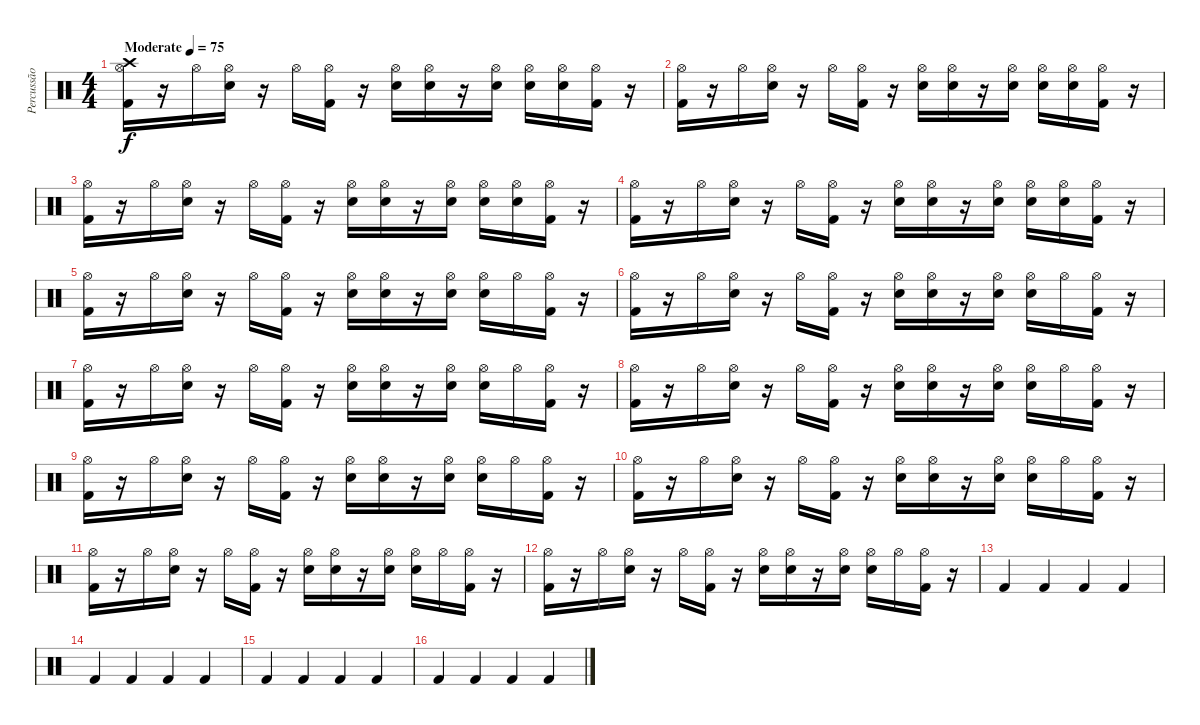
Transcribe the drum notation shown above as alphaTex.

\track ("Percussão" "Percussão") {instrument percussion}
\staff {score}
\articulation defaults
\ts (4 4)
\tempo (75 "Moderate")
\clef neutral
\ks c
("Crash high (hit)" "Kick (hit) 2" "Hi-Hat (open)").16{dy f} r.16 "Hi-Hat (open)".16 ("Snare (hit) 2" "Hi-Hat (open)").16 r.16 "Hi-Hat (open)".16 ("Kick (hit) 2" "Hi-Hat (open)").16 r.16 ("Electric Snare (hit)" "Hi-Hat (open)").16 ("Snare (hit) 2" "Hi-Hat (open)").16 r.16 ("Electric Snare (hit)" "Hi-Hat (open)").16 ("Electric Snare (hit)" "Hi-Hat (open)").16 ("Snare (hit) 2" "Hi-Hat (open)").16 ("Kick (hit) 2" "Hi-Hat (open)").16 r.16 |
("Kick (hit) 2" "Hi-Hat (open)").16 r.16 "Hi-Hat (open)".16 ("Snare (hit) 2" "Hi-Hat (open)").16 r.16 "Hi-Hat (open)".16 ("Kick (hit) 2" "Hi-Hat (open)").16 r.16 ("Electric Snare (hit)" "Hi-Hat (open)").16 ("Snare (hit) 2" "Hi-Hat (open)").16 r.16 ("Electric Snare (hit)" "Hi-Hat (open)").16 ("Electric Snare (hit)" "Hi-Hat (open)").16 ("Snare (hit) 2" "Hi-Hat (open)").16 ("Kick (hit) 2" "Hi-Hat (open)").16 r.16 |
("Kick (hit) 2" "Hi-Hat (open)").16 r.16 "Hi-Hat (open)".16 ("Snare (hit) 2" "Hi-Hat (open)").16 r.16 "Hi-Hat (open)".16 ("Kick (hit) 2" "Hi-Hat (open)").16 r.16 ("Electric Snare (hit)" "Hi-Hat (open)").16 ("Snare (hit) 2" "Hi-Hat (open)").16 r.16 ("Electric Snare (hit)" "Hi-Hat (open)").16 ("Electric Snare (hit)" "Hi-Hat (open)").16 ("Snare (hit) 2" "Hi-Hat (open)").16 ("Kick (hit) 2" "Hi-Hat (open)").16 r.16 |
("Kick (hit) 2" "Hi-Hat (open)").16 r.16 "Hi-Hat (open)".16 ("Snare (hit) 2" "Hi-Hat (open)").16 r.16 "Hi-Hat (open)".16 ("Kick (hit) 2" "Hi-Hat (open)").16 r.16 ("Electric Snare (hit)" "Hi-Hat (open)").16 ("Snare (hit) 2" "Hi-Hat (open)").16 r.16 ("Electric Snare (hit)" "Hi-Hat (open)").16 ("Electric Snare (hit)" "Hi-Hat (open)").16 ("Snare (hit) 2" "Hi-Hat (open)").16 ("Kick (hit) 2" "Hi-Hat (open)").16 r.16 |
("Kick (hit) 2" "Hi-Hat (open)").16 r.16 "Hi-Hat (open)".16 ("Snare (hit) 2" "Hi-Hat (open)").16 r.16 "Hi-Hat (open)".16 ("Kick (hit) 2" "Hi-Hat (open)").16 r.16 ("Electric Snare (hit)" "Hi-Hat (open)").16 ("Snare (hit) 2" "Hi-Hat (open)").16 r.16 ("Electric Snare (hit)" "Hi-Hat (open)").16 ("Electric Snare (hit)" "Hi-Hat (open)").16 "Hi-Hat (open)".16 ("Kick (hit) 2" "Hi-Hat (open)").16 r.16 |
("Kick (hit) 2" "Hi-Hat (open)").16 r.16 "Hi-Hat (open)".16 ("Snare (hit) 2" "Hi-Hat (open)").16 r.16 "Hi-Hat (open)".16 ("Kick (hit) 2" "Hi-Hat (open)").16 r.16 ("Electric Snare (hit)" "Hi-Hat (open)").16 ("Snare (hit) 2" "Hi-Hat (open)").16 r.16 ("Electric Snare (hit)" "Hi-Hat (open)").16 ("Electric Snare (hit)" "Hi-Hat (open)").16 "Hi-Hat (open)".16 ("Kick (hit) 2" "Hi-Hat (open)").16 r.16 |
("Kick (hit) 2" "Hi-Hat (open)").16 r.16 "Hi-Hat (open)".16 ("Snare (hit) 2" "Hi-Hat (open)").16 r.16 "Hi-Hat (open)".16 ("Kick (hit) 2" "Hi-Hat (open)").16 r.16 ("Electric Snare (hit)" "Hi-Hat (open)").16 ("Snare (hit) 2" "Hi-Hat (open)").16 r.16 ("Electric Snare (hit)" "Hi-Hat (open)").16 ("Electric Snare (hit)" "Hi-Hat (open)").16 "Hi-Hat (open)".16 ("Kick (hit) 2" "Hi-Hat (open)").16 r.16 |
("Kick (hit) 2" "Hi-Hat (open)").16 r.16 "Hi-Hat (open)".16 ("Snare (hit) 2" "Hi-Hat (open)").16 r.16 "Hi-Hat (open)".16 ("Kick (hit) 2" "Hi-Hat (open)").16 r.16 ("Electric Snare (hit)" "Hi-Hat (open)").16 ("Snare (hit) 2" "Hi-Hat (open)").16 r.16 ("Electric Snare (hit)" "Hi-Hat (open)").16 ("Electric Snare (hit)" "Hi-Hat (open)").16 "Hi-Hat (open)".16 ("Kick (hit) 2" "Hi-Hat (open)").16 r.16 |
("Kick (hit) 2" "Hi-Hat (open)").16 r.16 "Hi-Hat (open)".16 ("Snare (hit) 2" "Hi-Hat (open)").16 r.16 "Hi-Hat (open)".16 ("Kick (hit) 2" "Hi-Hat (open)").16 r.16 ("Electric Snare (hit)" "Hi-Hat (open)").16 ("Snare (hit) 2" "Hi-Hat (open)").16 r.16 ("Electric Snare (hit)" "Hi-Hat (open)").16 ("Electric Snare (hit)" "Hi-Hat (open)").16 "Hi-Hat (open)".16 ("Kick (hit) 2" "Hi-Hat (open)").16 r.16 |
("Kick (hit) 2" "Hi-Hat (open)").16 r.16 "Hi-Hat (open)".16 ("Snare (hit) 2" "Hi-Hat (open)").16 r.16 "Hi-Hat (open)".16 ("Kick (hit) 2" "Hi-Hat (open)").16 r.16 ("Electric Snare (hit)" "Hi-Hat (open)").16 ("Snare (hit) 2" "Hi-Hat (open)").16 r.16 ("Electric Snare (hit)" "Hi-Hat (open)").16 ("Electric Snare (hit)" "Hi-Hat (open)").16 "Hi-Hat (open)".16 ("Kick (hit) 2" "Hi-Hat (open)").16 r.16 |
("Kick (hit) 2" "Hi-Hat (open)").16 r.16 "Hi-Hat (open)".16 ("Snare (hit) 2" "Hi-Hat (open)").16 r.16 "Hi-Hat (open)".16 ("Kick (hit) 2" "Hi-Hat (open)").16 r.16 ("Electric Snare (hit)" "Hi-Hat (open)").16 ("Snare (hit) 2" "Hi-Hat (open)").16 r.16 ("Electric Snare (hit)" "Hi-Hat (open)").16 ("Electric Snare (hit)" "Hi-Hat (open)").16 "Hi-Hat (open)".16 ("Kick (hit) 2" "Hi-Hat (open)").16 r.16 |
("Kick (hit) 2" "Hi-Hat (open)").16 r.16 "Hi-Hat (open)".16 ("Snare (hit) 2" "Hi-Hat (open)").16 r.16 "Hi-Hat (open)".16 ("Kick (hit) 2" "Hi-Hat (open)").16 r.16 ("Electric Snare (hit)" "Hi-Hat (open)").16 ("Snare (hit) 2" "Hi-Hat (open)").16 r.16 ("Electric Snare (hit)" "Hi-Hat (open)").16 ("Electric Snare (hit)" "Hi-Hat (open)").16 "Hi-Hat (open)".16 ("Kick (hit) 2" "Hi-Hat (open)").16 r.16 |
"Kick (hit) 2".4 "Kick (hit) 2".4 "Kick (hit) 2".4 "Kick (hit) 2".4 |
"Kick (hit) 2".4 "Kick (hit) 2".4 "Kick (hit) 2".4 "Kick (hit) 2".4 |
"Kick (hit) 2".4 "Kick (hit) 2".4 "Kick (hit) 2".4 "Kick (hit) 2".4 |
"Kick (hit) 2".4 "Kick (hit) 2".4 "Kick (hit) 2".4 "Kick (hit) 2".4
